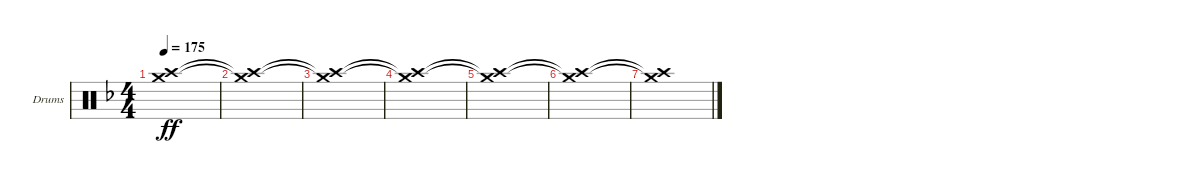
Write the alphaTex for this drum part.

\defaultSystemsLayout 4
\bracketExtendMode groupsimilarinstruments
\firstSystemTrackNameOrientation horizontal
\otherSystemsTrackNameOrientation horizontal
\track ("Drumkit" "Drums") {instrument percussion}
\staff {score}
\articulation defaults
\ts (4 4)
\tempo 175
\clef neutral
\ks f
("Crash high (hit)"{t} "Crash medium (hit)"{t}).1{dy ff} |
("Crash high (hit)"{t} "Crash medium (hit)"{t}).1 |
("Crash high (hit)"{t} "Crash medium (hit)"{t}).1 |
("Crash high (hit)"{t} "Crash medium (hit)"{t}).1 |
("Crash high (hit)"{t} "Crash medium (hit)"{t}).1 |
("Crash high (hit)"{t} "Crash medium (hit)"{t}).1 |
("Crash high (hit)"{t} "Crash medium (hit)"{t}).1
